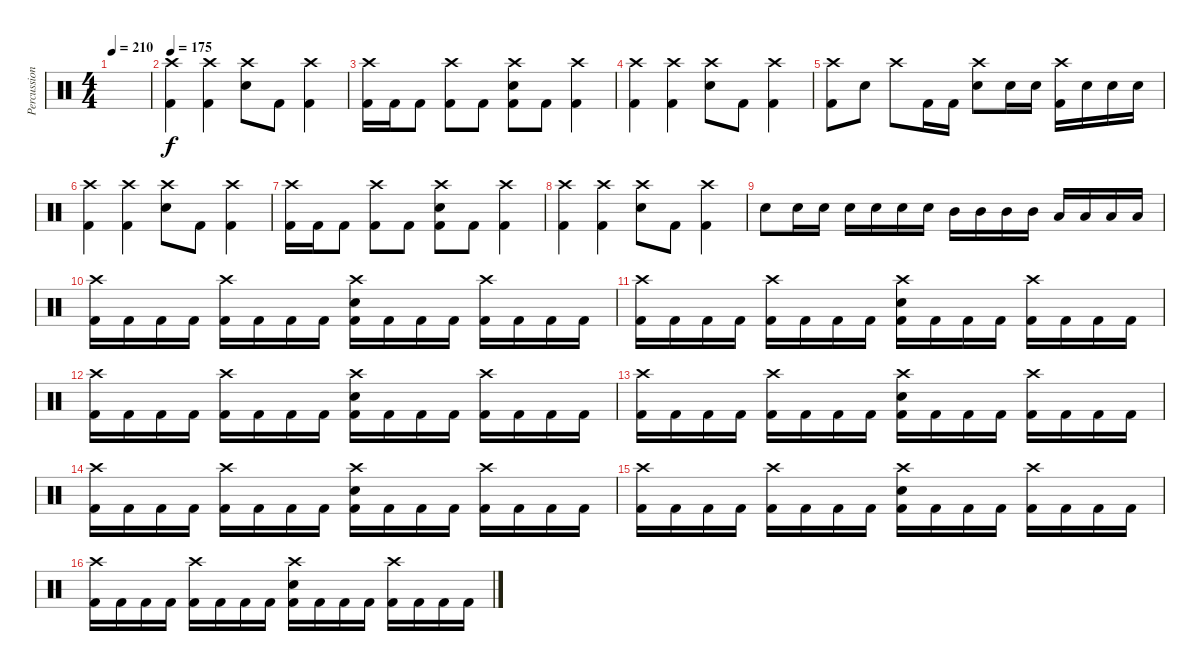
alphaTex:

\track ("Percussion" "Percussion") {instrument percussion}
\staff {score}
\articulation defaults
\ts (4 4)
\tempo 210
\clef neutral
\ks c
|
\tempo 175
("Crash high (hit)" "Kick (hit) 2").4 ("Crash high (hit)" "Kick (hit) 2").4 ("Crash high (hit)" "Electric Snare (hit)").8 "Kick (hit) 2".8 ("Crash high (hit)" "Kick (hit) 2").4 |
("Crash high (hit)" "Kick (hit) 2").16 "Kick (hit) 2".16 "Kick (hit) 2".8 ("Crash high (hit)" "Kick (hit) 2").8 "Kick (hit) 2".8 ("Crash high (hit)" "Electric Snare (hit)" "Kick (hit) 2").8 "Kick (hit) 2".8 ("Crash high (hit)" "Kick (hit) 2").4 |
("Crash high (hit)" "Kick (hit) 2").4 ("Crash high (hit)" "Kick (hit) 2").4 ("Crash high (hit)" "Electric Snare (hit)").8 "Kick (hit) 2".8 ("Crash high (hit)" "Kick (hit) 2").4 |
("Crash high (hit)" "Kick (hit) 2").8 "Electric Snare (hit)".8 "Crash high (hit)".8 "Kick (hit) 2".16 "Kick (hit) 2".16 ("Crash high (hit)" "Electric Snare (hit)").8 "Electric Snare (hit)".16 "Electric Snare (hit)".16 ("Crash high (hit)" "Kick (hit) 2").16 "Electric Snare (hit)".16 "Electric Snare (hit)".16 "Electric Snare (hit)".16 |
("Crash high (hit)" "Kick (hit) 2").4 ("Crash high (hit)" "Kick (hit) 2").4 ("Crash high (hit)" "Electric Snare (hit)").8 "Kick (hit) 2".8 ("Crash high (hit)" "Kick (hit) 2").4 |
("Crash high (hit)" "Kick (hit) 2").16 "Kick (hit) 2".16 "Kick (hit) 2".8 ("Crash high (hit)" "Kick (hit) 2").8 "Kick (hit) 2".8 ("Crash high (hit)" "Electric Snare (hit)" "Kick (hit) 2").8 "Kick (hit) 2".8 ("Crash high (hit)" "Kick (hit) 2").4 |
("Crash high (hit)" "Kick (hit) 2").4 ("Crash high (hit)" "Kick (hit) 2").4 ("Crash high (hit)" "Electric Snare (hit)").8 "Kick (hit) 2".8 ("Crash high (hit)" "Kick (hit) 2").4 |
"Electric Snare (hit)".8 "Electric Snare (hit)".16 "Electric Snare (hit)".16 "Electric Snare (hit)".16 "Electric Snare (hit)".16 "Electric Snare (hit)".16 "Electric Snare (hit)".16 "Mid Tom (hit)".16 "Mid Tom (hit)".16 "Mid Tom (hit)".16 "Mid Tom (hit)".16 "Low Tom (hit)".16 "Low Tom (hit)".16 "Low Tom (hit)".16 "Low Tom (hit)".16 |
("Crash high (hit)" "Kick (hit) 2").16 "Kick (hit) 2".16 "Kick (hit) 2".16 "Kick (hit) 2".16 ("Crash high (hit)" "Kick (hit) 2").16 "Kick (hit) 2".16 "Kick (hit) 2".16 "Kick (hit) 2".16 ("Crash high (hit)" "Electric Snare (hit)" "Kick (hit) 2").16 "Kick (hit) 2".16 "Kick (hit) 2".16 "Kick (hit) 2".16 ("Crash high (hit)" "Kick (hit) 2").16 "Kick (hit) 2".16 "Kick (hit) 2".16 "Kick (hit) 2".16 |
("Crash high (hit)" "Kick (hit) 2").16 "Kick (hit) 2".16 "Kick (hit) 2".16 "Kick (hit) 2".16 ("Crash high (hit)" "Kick (hit) 2").16 "Kick (hit) 2".16 "Kick (hit) 2".16 "Kick (hit) 2".16 ("Crash high (hit)" "Electric Snare (hit)" "Kick (hit) 2").16 "Kick (hit) 2".16 "Kick (hit) 2".16 "Kick (hit) 2".16 ("Crash high (hit)" "Kick (hit) 2").16 "Kick (hit) 2".16 "Kick (hit) 2".16 "Kick (hit) 2".16 |
("Crash high (hit)" "Kick (hit) 2").16 "Kick (hit) 2".16 "Kick (hit) 2".16 "Kick (hit) 2".16 ("Crash high (hit)" "Kick (hit) 2").16 "Kick (hit) 2".16 "Kick (hit) 2".16 "Kick (hit) 2".16 ("Crash high (hit)" "Electric Snare (hit)" "Kick (hit) 2").16 "Kick (hit) 2".16 "Kick (hit) 2".16 "Kick (hit) 2".16 ("Crash high (hit)" "Kick (hit) 2").16 "Kick (hit) 2".16 "Kick (hit) 2".16 "Kick (hit) 2".16 |
("Crash high (hit)" "Kick (hit) 2").16 "Kick (hit) 2".16 "Kick (hit) 2".16 "Kick (hit) 2".16 ("Crash high (hit)" "Kick (hit) 2").16 "Kick (hit) 2".16 "Kick (hit) 2".16 "Kick (hit) 2".16 ("Crash high (hit)" "Electric Snare (hit)" "Kick (hit) 2").16 "Kick (hit) 2".16 "Kick (hit) 2".16 "Kick (hit) 2".16 ("Crash high (hit)" "Kick (hit) 2").16 "Kick (hit) 2".16 "Kick (hit) 2".16 "Kick (hit) 2".16 |
("Crash high (hit)" "Kick (hit) 2").16 "Kick (hit) 2".16 "Kick (hit) 2".16 "Kick (hit) 2".16 ("Crash high (hit)" "Kick (hit) 2").16 "Kick (hit) 2".16 "Kick (hit) 2".16 "Kick (hit) 2".16 ("Crash high (hit)" "Electric Snare (hit)" "Kick (hit) 2").16 "Kick (hit) 2".16 "Kick (hit) 2".16 "Kick (hit) 2".16 ("Crash high (hit)" "Kick (hit) 2").16 "Kick (hit) 2".16 "Kick (hit) 2".16 "Kick (hit) 2".16 |
("Crash high (hit)" "Kick (hit) 2").16 "Kick (hit) 2".16 "Kick (hit) 2".16 "Kick (hit) 2".16 ("Crash high (hit)" "Kick (hit) 2").16 "Kick (hit) 2".16 "Kick (hit) 2".16 "Kick (hit) 2".16 ("Crash high (hit)" "Electric Snare (hit)" "Kick (hit) 2").16 "Kick (hit) 2".16 "Kick (hit) 2".16 "Kick (hit) 2".16 ("Crash high (hit)" "Kick (hit) 2").16 "Kick (hit) 2".16 "Kick (hit) 2".16 "Kick (hit) 2".16 |
("Crash high (hit)" "Kick (hit) 2").16 "Kick (hit) 2".16 "Kick (hit) 2".16 "Kick (hit) 2".16 ("Crash high (hit)" "Kick (hit) 2").16 "Kick (hit) 2".16 "Kick (hit) 2".16 "Kick (hit) 2".16 ("Crash high (hit)" "Electric Snare (hit)" "Kick (hit) 2").16 "Kick (hit) 2".16 "Kick (hit) 2".16 "Kick (hit) 2".16 ("Crash high (hit)" "Kick (hit) 2").16 "Kick (hit) 2".16 "Kick (hit) 2".16 "Kick (hit) 2".16
